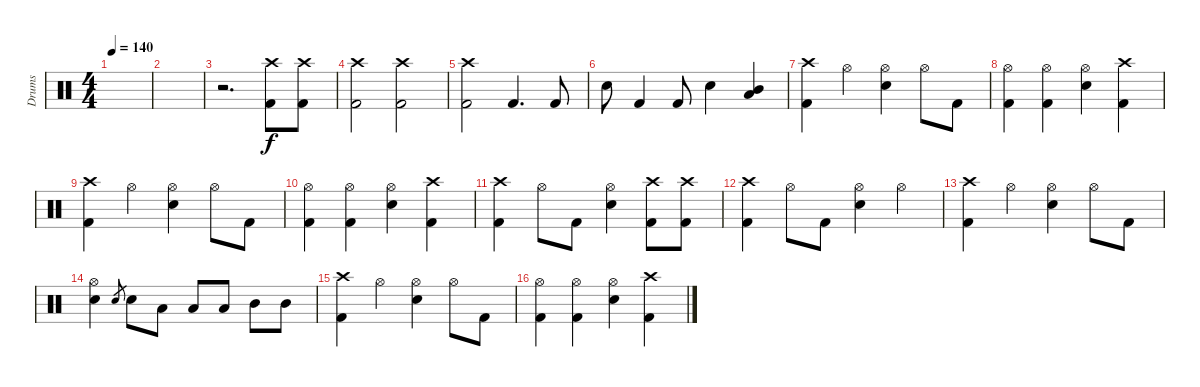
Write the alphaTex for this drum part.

\track ("Drums" "Drums") {instrument percussion}
\staff {score}
\articulation defaults
\ts (4 4)
\tempo 140
\clef neutral
\ks c
|
|
r.2{d} ("Crash high (hit)" "Kick (hit) 2").8{dy f} ("Crash high (hit)" "Kick (hit) 2").8 |
("Crash high (hit)" "Kick (hit) 2").2 ("Crash high (hit)" "Kick (hit) 2").2 |
("Crash high (hit)" "Kick (hit) 2").2 "Kick (hit) 2".4{d} "Kick (hit) 2".8 |
"Snare (hit) 2".8 "Kick (hit) 2".4 "Kick (hit) 2".8 "Electric Snare (hit)".4 ("Mid Tom (hit)" "Low Tom (hit)").4 |
("Crash high (hit)" "Kick (hit) 2").4 "Hi-Hat (open)".4 ("Hi-Hat (open)" "Electric Snare (hit)").4 "Hi-Hat (open)".8 "Kick (hit) 2".8 |
("Hi-Hat (open)" "Kick (hit) 2").4 ("Hi-Hat (open)" "Kick (hit) 2").4 ("Hi-Hat (open)" "Electric Snare (hit)").4 ("Crash high (hit)" "Kick (hit) 2").4 |
("Crash high (hit)" "Kick (hit) 2").4 "Hi-Hat (open)".4 ("Hi-Hat (open)" "Electric Snare (hit)").4 "Hi-Hat (open)".8 "Kick (hit) 2".8 |
("Hi-Hat (open)" "Kick (hit) 2").4 ("Hi-Hat (open)" "Kick (hit) 2").4 ("Hi-Hat (open)" "Electric Snare (hit)").4 ("Crash high (hit)" "Kick (hit) 2").4 |
("Crash high (hit)" "Kick (hit) 2").4 "Hi-Hat (open)".8 "Kick (hit) 2".8 ("Hi-Hat (open)" "Electric Snare (hit)").4 ("Crash high (hit)" "Kick (hit) 2").8 ("Crash high (hit)" "Kick (hit) 2").8 |
("Crash high (hit)" "Kick (hit) 2").4 "Hi-Hat (open)".8 "Kick (hit) 2".8 ("Hi-Hat (open)" "Electric Snare (hit)").4 "Hi-Hat (open)".4 |
("Crash high (hit)" "Kick (hit) 2").4 "Hi-Hat (open)".4 ("Hi-Hat (open)" "Electric Snare (hit)").4 "Hi-Hat (open)".8 "Kick (hit) 2".8 |
("Hi-Hat (open)" "Electric Snare (hit)").4 "Electric Snare (hit)".8{gr} "Electric Snare (hit)".8 "Low Tom (hit)".8 "Low Tom (hit)".8 "Low Tom (hit)".8 "Mid Tom (hit)".8 "Mid Tom (hit)".8 |
("Crash high (hit)" "Kick (hit) 2").4 "Hi-Hat (open)".4 ("Hi-Hat (open)" "Electric Snare (hit)").4 "Hi-Hat (open)".8 "Kick (hit) 2".8 |
("Hi-Hat (open)" "Kick (hit) 2").4 ("Hi-Hat (open)" "Kick (hit) 2").4 ("Hi-Hat (open)" "Electric Snare (hit)").4 ("Crash high (hit)" "Kick (hit) 2").4
